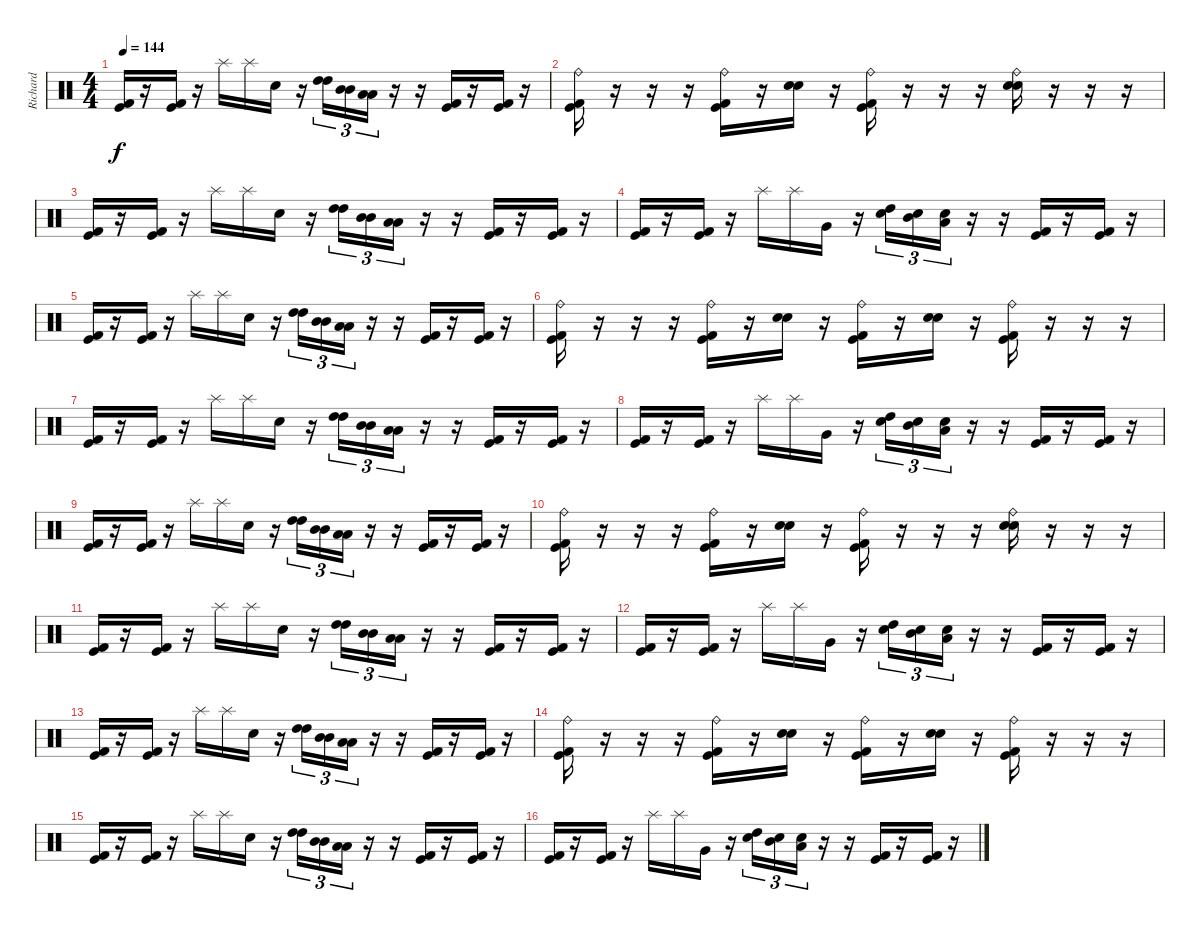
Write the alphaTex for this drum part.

\track ("Richard" "Richard") {instrument percussion}
\staff {score}
\articulation defaults
\ts (4 4)
\tempo 144
\clef neutral
\ks c
("Kick (hit) 2" "Kick (hit)").16{dy f} r.16 ("Kick (hit) 2" "Kick (hit)").16 r.16 "Splash (hit)".16 "Splash (hit)".16 "Snare (hit) 2".16 r.16 ("High Tom (hit)" "High Tom (hit)").16{tu (3 2)} ("Mid Tom (hit)" "Mid Tom (hit)").16{tu (3 2)} ("Low Tom (hit)" "Low Tom (hit)").16{tu (3 2)} r.16 r.16 ("Kick (hit) 2" "Kick (hit)").16 r.16 ("Kick (hit) 2" "Kick (hit)").16 r.16 |
("Ride (bell)" "Kick (hit)" "Kick (hit) 2").16 r.16 r.16 r.16 ("Ride (bell)" "Kick (hit)" "Kick (hit) 2").16 r.16 ("Snare (hit) 2" "Electric Snare (hit)").16 r.16 ("Ride (bell)" "Kick (hit)" "Kick (hit) 2").16 r.16 r.16 r.16 ("Ride (bell)" "Snare (hit) 2" "Electric Snare (hit)").16 r.16 r.16 r.16 |
("Kick (hit) 2" "Kick (hit)").16 r.16 ("Kick (hit) 2" "Kick (hit)").16 r.16 "Splash (hit)".16 "Splash (hit)".16 "Snare (hit) 2".16 r.16 ("High Tom (hit)" "High Tom (hit)").16{tu (3 2)} ("Mid Tom (hit)" "Mid Tom (hit)").16{tu (3 2)} ("Low Tom (hit)" "Low Tom (hit)").16{tu (3 2)} r.16 r.16 ("Kick (hit) 2" "Kick (hit)").16 r.16 ("Kick (hit) 2" "Kick (hit)").16 r.16 |
("Kick (hit) 2" "Kick (hit)").16 r.16 ("Kick (hit) 2" "Kick (hit)").16 r.16 "Splash (hit)".16 "Splash (hit)".16 "Very Low Tom (hit)".16 r.16 ("Snare (hit) 2" "High Tom (hit)").16{tu (3 2)} ("Snare (hit) 2" "Mid Tom (hit)").16{tu (3 2)} ("Snare (hit) 2" "Low Tom (hit)").16{tu (3 2)} r.16 r.16 ("Kick (hit)" "Kick (hit) 2").16 r.16 ("Kick (hit)" "Kick (hit) 2").16 r.16 |
("Kick (hit) 2" "Kick (hit)").16 r.16 ("Kick (hit) 2" "Kick (hit)").16 r.16 "Splash (hit)".16 "Splash (hit)".16 "Snare (hit) 2".16 r.16 ("High Tom (hit)" "High Tom (hit)").16{tu (3 2)} ("Mid Tom (hit)" "Mid Tom (hit)").16{tu (3 2)} ("Low Tom (hit)" "Low Tom (hit)").16{tu (3 2)} r.16 r.16 ("Kick (hit) 2" "Kick (hit)").16 r.16 ("Kick (hit) 2" "Kick (hit)").16 r.16 |
("Ride (bell)" "Kick (hit)" "Kick (hit) 2").16 r.16 r.16 r.16 ("Ride (bell)" "Kick (hit)" "Kick (hit) 2").16 r.16 ("Snare (hit) 2" "Electric Snare (hit)").16 r.16 ("Ride (bell)" "Kick (hit)" "Kick (hit) 2").16 r.16 ("Snare (hit) 2" "Electric Snare (hit)").16 r.16 ("Ride (bell)" "Kick (hit)" "Kick (hit) 2").16 r.16 r.16 r.16 |
("Kick (hit) 2" "Kick (hit)").16 r.16 ("Kick (hit) 2" "Kick (hit)").16 r.16 "Splash (hit)".16 "Splash (hit)".16 "Snare (hit) 2".16 r.16 ("High Tom (hit)" "High Tom (hit)").16{tu (3 2)} ("Mid Tom (hit)" "Mid Tom (hit)").16{tu (3 2)} ("Low Tom (hit)" "Low Tom (hit)").16{tu (3 2)} r.16 r.16 ("Kick (hit) 2" "Kick (hit)").16 r.16 ("Kick (hit) 2" "Kick (hit)").16 r.16 |
("Kick (hit) 2" "Kick (hit)").16 r.16 ("Kick (hit) 2" "Kick (hit)").16 r.16 "Splash (hit)".16 "Splash (hit)".16 "Very Low Tom (hit)".16 r.16 ("Snare (hit) 2" "High Tom (hit)").16{tu (3 2)} ("Snare (hit) 2" "Mid Tom (hit)").16{tu (3 2)} ("Snare (hit) 2" "Low Tom (hit)").16{tu (3 2)} r.16 r.16 ("Kick (hit)" "Kick (hit) 2").16 r.16 ("Kick (hit)" "Kick (hit) 2").16 r.16 |
("Kick (hit) 2" "Kick (hit)").16 r.16 ("Kick (hit) 2" "Kick (hit)").16 r.16 "Splash (hit)".16 "Splash (hit)".16 "Snare (hit) 2".16 r.16 ("High Tom (hit)" "High Tom (hit)").16{tu (3 2)} ("Mid Tom (hit)" "Mid Tom (hit)").16{tu (3 2)} ("Low Tom (hit)" "Low Tom (hit)").16{tu (3 2)} r.16 r.16 ("Kick (hit) 2" "Kick (hit)").16 r.16 ("Kick (hit) 2" "Kick (hit)").16 r.16 |
("Ride (bell)" "Kick (hit)" "Kick (hit) 2").16 r.16 r.16 r.16 ("Ride (bell)" "Kick (hit)" "Kick (hit) 2").16 r.16 ("Snare (hit) 2" "Electric Snare (hit)").16 r.16 ("Ride (bell)" "Kick (hit)" "Kick (hit) 2").16 r.16 r.16 r.16 ("Ride (bell)" "Snare (hit) 2" "Electric Snare (hit)").16 r.16 r.16 r.16 |
("Kick (hit) 2" "Kick (hit)").16 r.16 ("Kick (hit) 2" "Kick (hit)").16 r.16 "Splash (hit)".16 "Splash (hit)".16 "Snare (hit) 2".16 r.16 ("High Tom (hit)" "High Tom (hit)").16{tu (3 2)} ("Mid Tom (hit)" "Mid Tom (hit)").16{tu (3 2)} ("Low Tom (hit)" "Low Tom (hit)").16{tu (3 2)} r.16 r.16 ("Kick (hit) 2" "Kick (hit)").16 r.16 ("Kick (hit) 2" "Kick (hit)").16 r.16 |
("Kick (hit) 2" "Kick (hit)").16 r.16 ("Kick (hit) 2" "Kick (hit)").16 r.16 "Splash (hit)".16 "Splash (hit)".16 "Very Low Tom (hit)".16 r.16 ("Snare (hit) 2" "High Tom (hit)").16{tu (3 2)} ("Snare (hit) 2" "Mid Tom (hit)").16{tu (3 2)} ("Snare (hit) 2" "Low Tom (hit)").16{tu (3 2)} r.16 r.16 ("Kick (hit)" "Kick (hit) 2").16 r.16 ("Kick (hit)" "Kick (hit) 2").16 r.16 |
("Kick (hit) 2" "Kick (hit)").16 r.16 ("Kick (hit) 2" "Kick (hit)").16 r.16 "Splash (hit)".16 "Splash (hit)".16 "Snare (hit) 2".16 r.16 ("High Tom (hit)" "High Tom (hit)").16{tu (3 2)} ("Mid Tom (hit)" "Mid Tom (hit)").16{tu (3 2)} ("Low Tom (hit)" "Low Tom (hit)").16{tu (3 2)} r.16 r.16 ("Kick (hit) 2" "Kick (hit)").16 r.16 ("Kick (hit) 2" "Kick (hit)").16 r.16 |
("Ride (bell)" "Kick (hit)" "Kick (hit) 2").16 r.16 r.16 r.16 ("Ride (bell)" "Kick (hit)" "Kick (hit) 2").16 r.16 ("Snare (hit) 2" "Electric Snare (hit)").16 r.16 ("Ride (bell)" "Kick (hit)" "Kick (hit) 2").16 r.16 ("Snare (hit) 2" "Electric Snare (hit)").16 r.16 ("Ride (bell)" "Kick (hit)" "Kick (hit) 2").16 r.16 r.16 r.16 |
("Kick (hit) 2" "Kick (hit)").16 r.16 ("Kick (hit) 2" "Kick (hit)").16 r.16 "Splash (hit)".16 "Splash (hit)".16 "Snare (hit) 2".16 r.16 ("High Tom (hit)" "High Tom (hit)").16{tu (3 2)} ("Mid Tom (hit)" "Mid Tom (hit)").16{tu (3 2)} ("Low Tom (hit)" "Low Tom (hit)").16{tu (3 2)} r.16 r.16 ("Kick (hit) 2" "Kick (hit)").16 r.16 ("Kick (hit) 2" "Kick (hit)").16 r.16 |
("Kick (hit) 2" "Kick (hit)").16 r.16 ("Kick (hit) 2" "Kick (hit)").16 r.16 "Splash (hit)".16 "Splash (hit)".16 "Very Low Tom (hit)".16 r.16 ("Snare (hit) 2" "High Tom (hit)").16{tu (3 2)} ("Snare (hit) 2" "Mid Tom (hit)").16{tu (3 2)} ("Snare (hit) 2" "Low Tom (hit)").16{tu (3 2)} r.16 r.16 ("Kick (hit)" "Kick (hit) 2").16 r.16 ("Kick (hit)" "Kick (hit) 2").16 r.16
